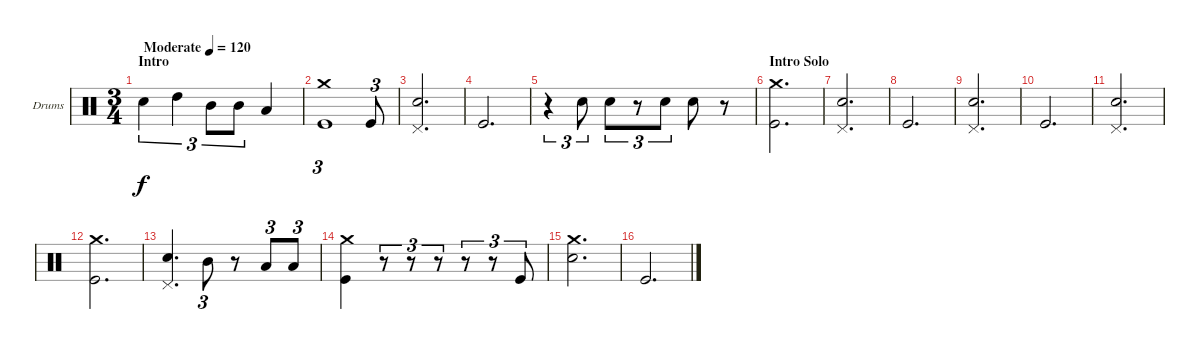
\bracketExtendMode groupsimilarinstruments
\firstSystemTrackNameOrientation horizontal
\otherSystemsTrackNameOrientation horizontal
\track ("Drumkit" "Drums") {instrument percussion}
\staff {score}
\articulation defaults
\ts (3 4)
\beaming (8 2 2 2)
\section ("" "Intro")
\tempo (120 "Moderate")
\clef neutral
\ks c "Snare (hit) 2".4{tu (3 2) dy f} "High Tom (hit)".4{tu (3 2)} "Mid Tom (hit)".8{tu (3 2)} "Mid Tom (hit)".8{tu (3 2)} "Low Tom (hit)".4
|
("Crash medium (hit)" "Kick (hit)").1{tu (3 2)} "Kick (hit)".8{tu (3 2)} |
("Snare (hit) 2" "Pedal Hi-Hat (hit)").2{d} |
"Kick (hit)".2{d} |
r.4{tu (3 2)} "Snare (hit) 2".8{tu (3 2)} "Snare (hit) 2".8{tu (3 2)} r.8{tu (3 2)} "Snare (hit) 2".8{tu (3 2)} "Snare (hit) 2".8 r.8 |
\section ("" "Intro Solo")
("Crash medium (hit)" "Kick (hit)").2{d} |
("Snare (hit) 2" "Pedal Hi-Hat (hit)").2{d} |
"Kick (hit)".2{d} |
("Snare (hit) 2" "Pedal Hi-Hat (hit)").2{d} |
"Kick (hit)".2{d} |
("Snare (hit) 2" "Pedal Hi-Hat (hit)").2{d} |
("Crash medium (hit)" "Kick (hit)").2{d} |
("Snare (hit) 2" "Pedal Hi-Hat (hit)").4{d} "Mid Tom (hit)".8{tu (3 2)} r.8 "Low Tom (hit)".8{tu (3 2)} "Low Tom (hit)".8{tu (3 2)} |
("Crash medium (hit)" "Kick (hit)").4 r.8{tu (3 2)} r.8{tu (3 2)} r.8{tu (3 2)} r.8{tu (3 2)} r.8{tu (3 2)} "Kick (hit)".8{tu (3 2)} |
("Crash medium (hit)" "Snare (hit) 2").2{d} |
"Kick (hit)".2{d}
